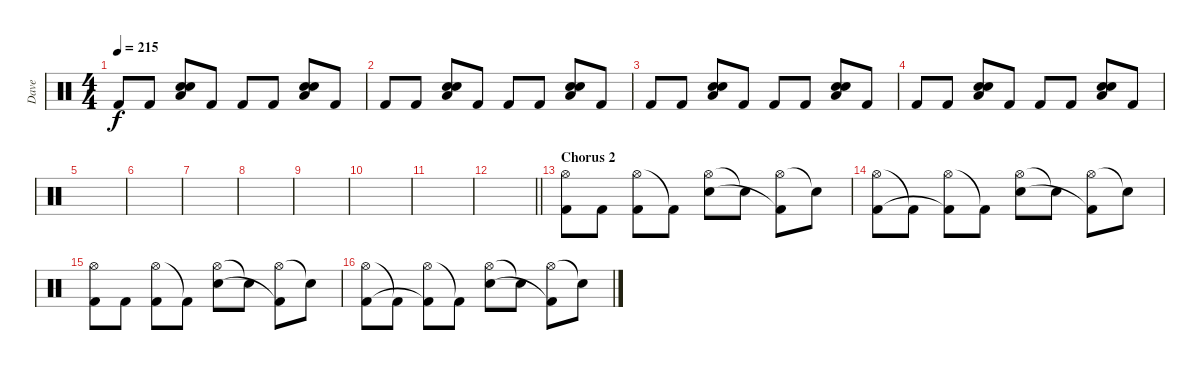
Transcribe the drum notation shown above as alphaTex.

\track ("Dave" "Dave") {instrument percussion}
\staff {score}
\articulation defaults
\ts (4 4)
\tempo 215
\clef neutral
\ks c "Kick (hit) 2".8{dy f} "Kick (hit) 2".8
("Low Floor Tom (hit)" "Electric Snare (hit)" "Electric Snare (hit)").8 "Kick (hit) 2".8 "Kick (hit) 2".8 "Kick (hit) 2".8 ("Low Floor Tom (hit)" "Electric Snare (hit)" "Electric Snare (hit)").8 "Kick (hit) 2".8 |
"Kick (hit) 2".8 "Kick (hit) 2".8 ("Low Floor Tom (hit)" "Electric Snare (hit)" "Electric Snare (hit)").8 "Kick (hit) 2".8 "Kick (hit) 2".8 "Kick (hit) 2".8 ("Low Floor Tom (hit)" "Electric Snare (hit)" "Electric Snare (hit)").8 "Kick (hit) 2".8 |
"Kick (hit) 2".8 "Kick (hit) 2".8 ("Low Floor Tom (hit)" "Electric Snare (hit)" "Electric Snare (hit)").8 "Kick (hit) 2".8 "Kick (hit) 2".8 "Kick (hit) 2".8 ("Low Floor Tom (hit)" "Electric Snare (hit)" "Electric Snare (hit)").8 "Kick (hit) 2".8 |
"Kick (hit) 2".8 "Kick (hit) 2".8 ("Low Floor Tom (hit)" "Electric Snare (hit)" "Electric Snare (hit)").8 "Kick (hit) 2".8 "Kick (hit) 2".8 "Kick (hit) 2".8 ("Low Floor Tom (hit)" "Electric Snare (hit)" "Electric Snare (hit)").8 "Kick (hit) 2".8 |
|
|
|
|
|
|
|
\barLineRight lightlight
|
\section ("" "Chorus 2")
("Hi-Hat (open)" "Kick (hit) 2").8 "Kick (hit) 2".8 ("Hi-Hat (open)" "Kick (hit) 2").8 "Kick (hit) 2"{t}.8 ("Hi-Hat (open)" "Electric Snare (hit)").8 "Snare (hit)"{t}.8 ("Hi-Hat (open)" "Kick (hit) 2"{t}).8 "Snare (hit)"{t}.8 |
("Hi-Hat (open)" "Kick (hit) 2").8 "Kick (hit) 2"{t}.8 ("Hi-Hat (open)" "Kick (hit) 2"{t}).8 "Kick (hit) 2"{t}.8 ("Hi-Hat (open)" "Electric Snare (hit)").8 "Snare (hit)"{t}.8 ("Hi-Hat (open)" "Kick (hit) 2"{t}).8 "Snare (hit)"{t}.8 |
("Hi-Hat (open)" "Kick (hit) 2").8 "Kick (hit) 2".8 ("Hi-Hat (open)" "Kick (hit) 2").8 "Kick (hit) 2"{t}.8 ("Hi-Hat (open)" "Electric Snare (hit)").8 "Snare (hit)"{t}.8 ("Hi-Hat (open)" "Kick (hit) 2"{t}).8 "Snare (hit)"{t}.8 |
("Hi-Hat (open)" "Kick (hit) 2").8 "Kick (hit) 2"{t}.8 ("Hi-Hat (open)" "Kick (hit) 2"{t}).8 "Kick (hit) 2"{t}.8 ("Hi-Hat (open)" "Electric Snare (hit)").8 "Snare (hit)"{t}.8 ("Hi-Hat (open)" "Kick (hit) 2"{t}).8 "Snare (hit)"{t}.8
